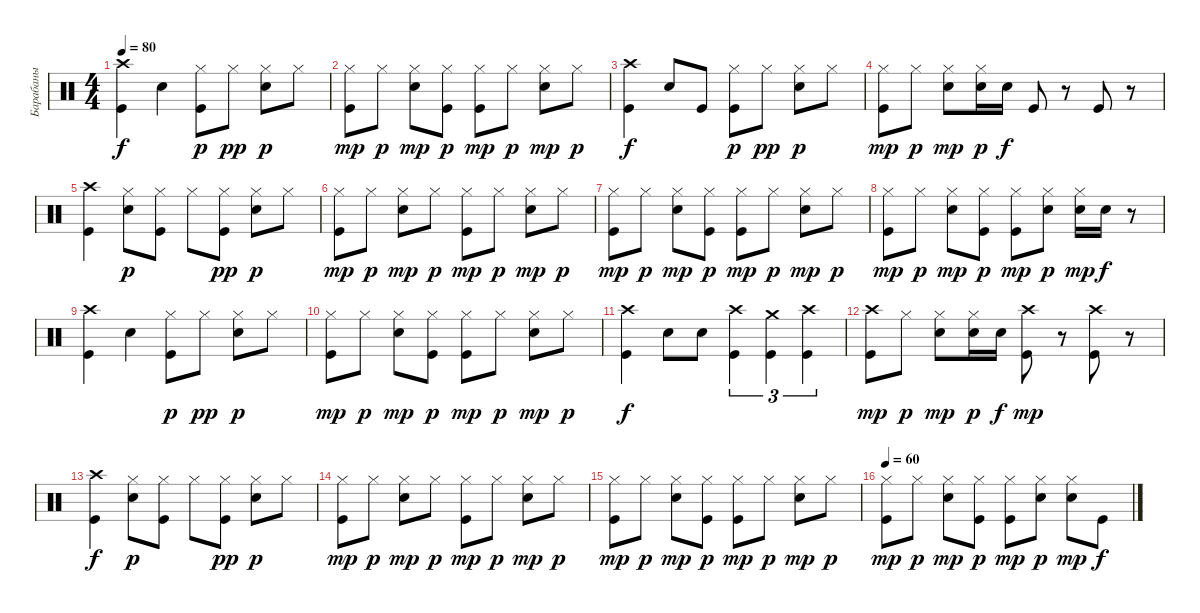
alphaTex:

\track ("Барабаны" "Барабаны") {instrument percussion}
\staff {score}
\articulation defaults
\ts (4 4)
\tempo 80
\clef neutral
\ks c
("Crash high (hit)" "Kick (hit)").4{dy f} "Snare (hit) 2".4 ("Kick (hit)" "Hi-Hat (closed)").8{dy p} "Hi-Hat (closed)".8{dy pp} ("Hi-Hat (closed)" "Snare (hit) 2").8{dy p} "Hi-Hat (closed)".8 |
("Kick (hit)" "Hi-Hat (closed)").8{dy mp} "Hi-Hat (closed)".8{dy p} ("Hi-Hat (closed)" "Snare (hit) 2").8{dy mp} ("Kick (hit)" "Hi-Hat (closed)").8{dy p} ("Hi-Hat (closed)" "Kick (hit)").8{dy mp} "Hi-Hat (closed)".8{dy p} ("Snare (hit) 2" "Hi-Hat (closed)").8{dy mp} "Hi-Hat (closed)".8{dy p} |
("Kick (hit)" "Crash high (hit)").4{dy f} "Snare (hit) 2".8 "Kick (hit)".8 ("Kick (hit)" "Hi-Hat (closed)").8{dy p} "Hi-Hat (closed)".8{dy pp} ("Hi-Hat (closed)" "Snare (hit) 2").8{dy p} "Hi-Hat (closed)".8 |
("Kick (hit)" "Hi-Hat (closed)").8{dy mp} "Hi-Hat (closed)".8{dy p} ("Snare (hit) 2" "Hi-Hat (closed)").8{dy mp} ("Snare (hit) 2" "Hi-Hat (closed)").16{dy p} "Snare (hit) 2".16{dy f} "Kick (hit)".8 r.8 "Kick (hit)".8 r.8 |
("Kick (hit)" "Crash high (hit)").4 ("Snare (hit) 2" "Hi-Hat (closed)").8{dy p} ("Kick (hit)" "Hi-Hat (closed)").8 "Hi-Hat (closed)".8 ("Kick (hit)" "Hi-Hat (closed)").8{dy pp} ("Snare (hit) 2" "Hi-Hat (closed)").8{dy p} "Hi-Hat (closed)".8 |
("Kick (hit)" "Hi-Hat (closed)").8{dy mp} "Hi-Hat (closed)".8{dy p} ("Snare (hit) 2" "Hi-Hat (closed)").8{dy mp} "Hi-Hat (closed)".8{dy p} ("Kick (hit)" "Hi-Hat (closed)").8{dy mp} "Hi-Hat (closed)".8{dy p} ("Snare (hit) 2" "Hi-Hat (closed)").8{dy mp} "Hi-Hat (closed)".8{dy p} |
("Kick (hit)" "Hi-Hat (closed)").8{dy mp} "Hi-Hat (closed)".8{dy p} ("Snare (hit) 2" "Hi-Hat (closed)").8{dy mp} ("Kick (hit)" "Hi-Hat (closed)").8{dy p} ("Kick (hit)" "Hi-Hat (closed)").8{dy mp} "Hi-Hat (closed)".8{dy p} ("Snare (hit) 2" "Hi-Hat (closed)").8{dy mp} "Hi-Hat (closed)".8{dy p} |
("Kick (hit)" "Hi-Hat (closed)").8{dy mp} "Hi-Hat (closed)".8{dy p} ("Snare (hit) 2" "Hi-Hat (closed)").8{dy mp} ("Kick (hit)" "Hi-Hat (closed)").8{dy p} ("Kick (hit)" "Hi-Hat (closed)").8{dy mp} ("Snare (hit) 2" "Hi-Hat (closed)").8{dy p} ("Snare (hit) 2" "Hi-Hat (closed)").16{dy mp} "Snare (hit) 2".16{dy f} r.8 |
("Crash high (hit)" "Kick (hit)").4 "Snare (hit) 2".4 ("Kick (hit)" "Hi-Hat (closed)").8{dy p} "Hi-Hat (closed)".8{dy pp} ("Hi-Hat (closed)" "Snare (hit) 2").8{dy p} "Hi-Hat (closed)".8 |
("Kick (hit)" "Hi-Hat (closed)").8{dy mp} "Hi-Hat (closed)".8{dy p} ("Hi-Hat (closed)" "Snare (hit) 2").8{dy mp} ("Kick (hit)" "Hi-Hat (closed)").8{dy p} ("Hi-Hat (closed)" "Kick (hit)").8{dy mp} "Hi-Hat (closed)".8{dy p} ("Snare (hit) 2" "Hi-Hat (closed)").8{dy mp} "Hi-Hat (closed)".8{dy p} |
("Kick (hit)" "Crash high (hit)").4{dy f} "Snare (hit) 2".8 "Snare (hit) 2".8 ("Crash high (hit)" "Kick (hit)").4{tu (3 2)} ("Crash medium (hit)" "Kick (hit)").4{tu (3 2)} ("Crash high (hit)" "Kick (hit)").4{tu (3 2)} |
("Kick (hit)" "Crash high (hit)").8{dy mp} "Hi-Hat (closed)".8{dy p} ("Snare (hit) 2" "Hi-Hat (closed)").8{dy mp} ("Snare (hit) 2" "Hi-Hat (closed)").16{dy p} "Snare (hit) 2".16{dy f} ("Crash high (hit)" "Kick (hit)").8{dy mp} r.8 ("Crash high (hit)" "Kick (hit)").8 r.8 |
("Kick (hit)" "Crash high (hit)").4{dy f} ("Snare (hit) 2" "Hi-Hat (closed)").8{dy p} ("Kick (hit)" "Hi-Hat (closed)").8 "Hi-Hat (closed)".8 ("Kick (hit)" "Hi-Hat (closed)").8{dy pp} ("Snare (hit) 2" "Hi-Hat (closed)").8{dy p} "Hi-Hat (closed)".8 |
("Kick (hit)" "Hi-Hat (closed)").8{dy mp} "Hi-Hat (closed)".8{dy p} ("Snare (hit) 2" "Hi-Hat (closed)").8{dy mp} "Hi-Hat (closed)".8{dy p} ("Kick (hit)" "Hi-Hat (closed)").8{dy mp} "Hi-Hat (closed)".8{dy p} ("Snare (hit) 2" "Hi-Hat (closed)").8{dy mp} "Hi-Hat (closed)".8{dy p} |
("Kick (hit)" "Hi-Hat (closed)").8{dy mp} "Hi-Hat (closed)".8{dy p} ("Snare (hit) 2" "Hi-Hat (closed)").8{dy mp} ("Kick (hit)" "Hi-Hat (closed)").8{dy p} ("Kick (hit)" "Hi-Hat (closed)").8{dy mp} "Hi-Hat (closed)".8{dy p} ("Snare (hit) 2" "Hi-Hat (closed)").8{dy mp} "Hi-Hat (closed)".8{dy p} |
\tempo 60
("Kick (hit)" "Hi-Hat (closed)").8{dy mp} "Hi-Hat (closed)".8{dy p} ("Snare (hit) 2" "Hi-Hat (closed)").8{dy mp} ("Kick (hit)" "Hi-Hat (closed)").8{dy p} ("Kick (hit)" "Hi-Hat (closed)").8{dy mp} ("Snare (hit) 2" "Hi-Hat (closed)").8{dy p} ("Snare (hit) 2" "Hi-Hat (closed)").8{dy mp} "Kick (hit)".8{dy f}
